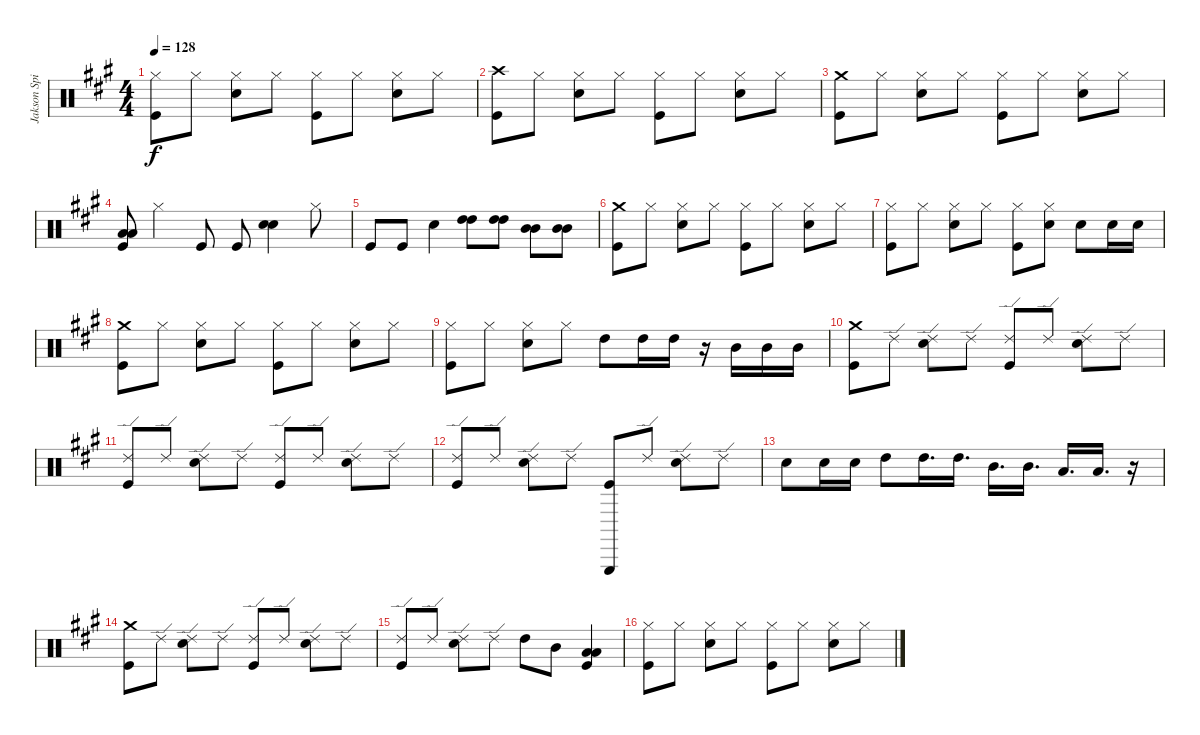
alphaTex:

\track ("Jakson Spires Drums" "Jakson Spi") {instrument percussion}
\staff {score}
\articulation defaults
\ts (4 4)
\tempo 128
\clef neutral
\ks a
("Hi-Hat (closed)" "Kick (hit)").8{dy f} "Hi-Hat (closed)".8 ("Hi-Hat (closed)" "Snare (hit) 2").8 "Hi-Hat (closed)".8 ("Hi-Hat (closed)" "Kick (hit)").8 "Hi-Hat (closed)".8 ("Hi-Hat (closed)" "Snare (hit) 2").8 "Hi-Hat (closed)".8 |
("Crash high (hit)" "Kick (hit)").8 "Hi-Hat (closed)".8 ("Hi-Hat (closed)" "Snare (hit) 2").8 "Hi-Hat (closed)".8 ("Hi-Hat (closed)" "Kick (hit)").8 "Hi-Hat (closed)".8 ("Hi-Hat (closed)" "Snare (hit) 2").8 "Hi-Hat (closed)".8 |
("Crash medium (hit)" "Kick (hit)").8 "Hi-Hat (closed)".8 ("Hi-Hat (closed)" "Snare (hit) 2").8 "Hi-Hat (closed)".8 ("Hi-Hat (closed)" "Kick (hit)").8 "Hi-Hat (closed)".8 ("Hi-Hat (closed)" "Snare (hit) 2").8 "Hi-Hat (closed)".8 |
("Low Tom (hit)" "Low Tom (hit)" "Kick (hit)").8 "Hi-Hat (closed)".4 "Kick (hit)".8 "Kick (hit)".8 ("Snare (hit) 2" "Snare (hit) 2").4 "Hi-Hat (closed)".8 |
"Kick (hit)".8 "Kick (hit)".8 "Snare (hit) 2".4 ("High Tom (hit)" "High Tom (hit)").8 ("High Tom (hit)" "High Tom (hit)").8 ("Mid Tom (hit)" "Mid Tom (hit)").8 ("Mid Tom (hit)" "Mid Tom (hit)").8 |
("Crash medium (hit)" "Kick (hit)").8 "Hi-Hat (closed)".8 ("Hi-Hat (closed)" "Snare (hit) 2").8 "Hi-Hat (closed)".8 ("Hi-Hat (closed)" "Kick (hit)").8 "Hi-Hat (closed)".8 ("Hi-Hat (closed)" "Snare (hit) 2").8 "Hi-Hat (closed)".8 |
("Hi-Hat (closed)" "Kick (hit)").8 "Hi-Hat (closed)".8 ("Hi-Hat (closed)" "Snare (hit) 2").8 "Hi-Hat (closed)".8 ("Hi-Hat (closed)" "Kick (hit)").8 ("Hi-Hat (closed)" "Snare (hit) 2").8 "Snare (hit) 2".8 "Snare (hit) 2".16 "Snare (hit) 2".16 |
("Crash medium (hit)" "Kick (hit)").8 "Hi-Hat (closed)".8 ("Hi-Hat (closed)" "Snare (hit) 2").8 "Hi-Hat (closed)".8 ("Hi-Hat (closed)" "Kick (hit)").8 "Hi-Hat (closed)".8 ("Hi-Hat (closed)" "Snare (hit) 2").8 "Hi-Hat (closed)".8 |
("Hi-Hat (closed)" "Kick (hit)").8 "Hi-Hat (closed)".8 ("Hi-Hat (closed)" "Snare (hit) 2").8 "Hi-Hat (closed)".8 "High Tom (hit)".8 "High Tom (hit)".16 "High Tom (hit)".16 r.16 "Mid Tom (hit)".16 "Mid Tom (hit)".16 "Mid Tom (hit)".16 |
("Crash medium (hit)" "Kick (hit)").8 "Ride (edge) 2".8 ("Ride (edge) 2" "Snare (hit) 2").8 "Ride (edge) 2".8 ("Ride (edge) 2" "Kick (hit)").8 "Ride (edge) 2".8 ("Ride (edge) 2" "Snare (hit) 2").8 "Ride (edge) 2".8 |
("Ride (edge) 2" "Kick (hit)").8 "Ride (edge) 2".8 ("Ride (edge) 2" "Snare (hit) 2").8 "Ride (edge) 2".8 ("Ride (edge) 2" "Kick (hit)").8 "Ride (edge) 2".8 ("Ride (edge) 2" "Snare (hit) 2").8 "Ride (edge) 2".8 |
("Ride (edge) 2" "Kick (hit)").8 "Ride (edge) 2".8 ("Ride (edge) 2" "Snare (hit) 2").8 "Ride (edge) 2".8 ("Triangle (hit)" "Kick (hit)").8 "Ride (edge) 2".8 ("Ride (edge) 2" "Snare (hit) 2").8 "Ride (edge) 2".8 |
"Snare (hit) 2".8 "Snare (hit) 2".16 "Snare (hit) 2".16 "High Tom (hit)".8 "High Tom (hit)".16{d} "High Tom (hit)".16{d} "Mid Tom (hit)".16{d} "Mid Tom (hit)".16{d} "Low Tom (hit)".16{d} "Low Tom (hit)".16{d} r.16 |
("Crash medium (hit)" "Kick (hit)").8 "Ride (edge) 2".8 ("Ride (edge) 2" "Snare (hit) 2").8 "Ride (edge) 2".8 ("Ride (edge) 2" "Kick (hit)").8 "Ride (edge) 2".8 ("Ride (edge) 2" "Snare (hit) 2").8 "Ride (edge) 2".8 |
("Ride (edge) 2" "Kick (hit)").8 "Ride (edge) 2".8 ("Ride (edge) 2" "Snare (hit) 2").8 "Ride (edge) 2".8 "High Tom (hit)".8 "Mid Tom (hit)".8 ("Low Tom (hit)" "Low Tom (hit)" "Kick (hit)").4 |
("Hi-Hat (closed)" "Kick (hit)").8 "Hi-Hat (closed)".8 ("Hi-Hat (closed)" "Snare (hit) 2").8 "Hi-Hat (closed)".8 ("Hi-Hat (closed)" "Kick (hit)").8 "Hi-Hat (closed)".8 ("Hi-Hat (closed)" "Snare (hit) 2").8 "Hi-Hat (closed)".8
